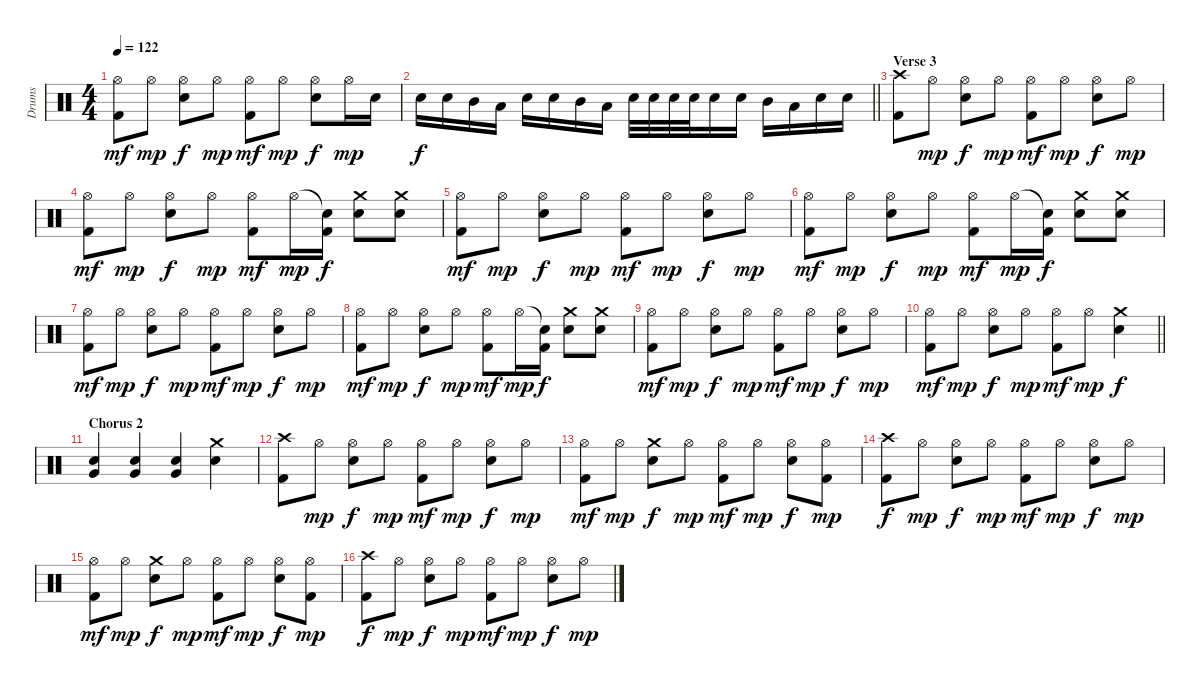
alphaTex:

\track ("Drums" "Drums") {instrument percussion}
\staff {score}
\articulation defaults
\ts (4 4)
\tempo 122
\clef neutral
\ks c
("Hi-Hat (open)" "Kick (hit) 2").8{dy mf} "Hi-Hat (open)".8{dy mp} ("Hi-Hat (open)" "Electric Snare (hit)").8{dy f} "Hi-Hat (open)".8{dy mp} ("Hi-Hat (open)" "Kick (hit) 2").8{dy mf} "Hi-Hat (open)".8{dy mp} ("Hi-Hat (open)" "Electric Snare (hit)").8{dy f} "Hi-Hat (open)".16{dy mp} "Electric Snare (hit)".16 |
\barLineRight lightlight "Electric Snare (hit)".16{dy f} "Electric Snare (hit)".16 "Mid Tom (hit)".16 "Low Tom (hit)".16 "Electric Snare (hit)".16 "Electric Snare (hit)".16 "Mid Tom (hit)".16 "Low Tom (hit)".16 "Electric Snare (hit)".32 "Electric Snare (hit)".32 "Electric Snare (hit)".32 "Electric Snare (hit)".32 "Electric Snare (hit)".16 "Electric Snare (hit)".16 "Mid Tom (hit)".16 "Low Tom (hit)".16 "Electric Snare (hit)".16 "Electric Snare (hit)".16
|
\section ("" "Verse 3")
("Crash high (hit)" "Kick (hit) 2").8 "Hi-Hat (open)".8{dy mp} ("Hi-Hat (open)" "Electric Snare (hit)").8{dy f} "Hi-Hat (open)".8{dy mp} ("Hi-Hat (open)" "Kick (hit) 2").8{dy mf} "Hi-Hat (open)".8{dy mp} ("Hi-Hat (open)" "Electric Snare (hit)").8{dy f} "Hi-Hat (open)".8{dy mp} |
("Hi-Hat (open)" "Kick (hit) 2").8{dy mf} "Hi-Hat (open)".8{dy mp} ("Hi-Hat (open)" "Electric Snare (hit)").8{dy f} "Hi-Hat (open)".8{dy mp} ("Hi-Hat (open)" "Kick (hit) 2").8{dy mf} "Hi-Hat (open)".16{dy mp} ("Snare (hit)"{t} "Kick (hit) 2").16{dy f} ("Crash medium (hit)" "Electric Snare (hit)").8 ("Crash medium (hit)" "Electric Snare (hit)").8 |
("Hi-Hat (open)" "Kick (hit) 2").8{dy mf} "Hi-Hat (open)".8{dy mp} ("Hi-Hat (open)" "Electric Snare (hit)").8{dy f} "Hi-Hat (open)".8{dy mp} ("Hi-Hat (open)" "Kick (hit) 2").8{dy mf} "Hi-Hat (open)".8{dy mp} ("Hi-Hat (open)" "Electric Snare (hit)").8{dy f} "Hi-Hat (open)".8{dy mp} |
("Hi-Hat (open)" "Kick (hit) 2").8{dy mf} "Hi-Hat (open)".8{dy mp} ("Hi-Hat (open)" "Electric Snare (hit)").8{dy f} "Hi-Hat (open)".8{dy mp} ("Hi-Hat (open)" "Kick (hit) 2").8{dy mf} "Hi-Hat (open)".16{dy mp} ("Snare (hit)"{t} "Kick (hit) 2").16{dy f} ("Crash medium (hit)" "Electric Snare (hit)").8 ("Crash medium (hit)" "Electric Snare (hit)").8 |
("Hi-Hat (open)" "Kick (hit) 2").8{dy mf} "Hi-Hat (open)".8{dy mp} ("Hi-Hat (open)" "Electric Snare (hit)").8{dy f} "Hi-Hat (open)".8{dy mp} ("Hi-Hat (open)" "Kick (hit) 2").8{dy mf} "Hi-Hat (open)".8{dy mp} ("Hi-Hat (open)" "Electric Snare (hit)").8{dy f} "Hi-Hat (open)".8{dy mp} |
("Hi-Hat (open)" "Kick (hit) 2").8{dy mf} "Hi-Hat (open)".8{dy mp} ("Hi-Hat (open)" "Electric Snare (hit)").8{dy f} "Hi-Hat (open)".8{dy mp} ("Hi-Hat (open)" "Kick (hit) 2").8{dy mf} "Hi-Hat (open)".16{dy mp} ("Snare (hit)"{t} "Kick (hit) 2").16{dy f} ("Crash medium (hit)" "Electric Snare (hit)").8 ("Crash medium (hit)" "Electric Snare (hit)").8 |
("Hi-Hat (open)" "Kick (hit) 2").8{dy mf} "Hi-Hat (open)".8{dy mp} ("Hi-Hat (open)" "Electric Snare (hit)").8{dy f} "Hi-Hat (open)".8{dy mp} ("Hi-Hat (open)" "Kick (hit) 2").8{dy mf} "Hi-Hat (open)".8{dy mp} ("Hi-Hat (open)" "Electric Snare (hit)").8{dy f} "Hi-Hat (open)".8{dy mp} |
\barLineRight lightlight
("Hi-Hat (open)" "Kick (hit) 2").8{dy mf} "Hi-Hat (open)".8{dy mp} ("Hi-Hat (open)" "Electric Snare (hit)").8{dy f} "Hi-Hat (open)".8{dy mp} ("Hi-Hat (open)" "Kick (hit) 2").8{dy mf} "Hi-Hat (open)".8{dy mp} ("Crash medium (hit)" "Electric Snare (hit)").4{dy f} |
\section ("" "Chorus 2")
("Very Low Tom (hit)" "Electric Snare (hit)").4 ("Very Low Tom (hit)" "Electric Snare (hit)").4 ("Very Low Tom (hit)" "Electric Snare (hit)").4 ("Crash medium (hit)" "Electric Snare (hit)").4 |
("Crash high (hit)" "Kick (hit) 2").8 "Hi-Hat (open)".8{dy mp} ("Hi-Hat (open)" "Electric Snare (hit)").8{dy f} "Hi-Hat (open)".8{dy mp} ("Hi-Hat (open)" "Kick (hit) 2").8{dy mf} "Hi-Hat (open)".8{dy mp} ("Hi-Hat (open)" "Electric Snare (hit)").8{dy f} "Hi-Hat (open)".8{dy mp} |
("Hi-Hat (open)" "Kick (hit) 2").8{dy mf} "Hi-Hat (open)".8{dy mp} ("Crash medium (hit)" "Electric Snare (hit)").8{dy f} "Hi-Hat (open)".8{dy mp} ("Hi-Hat (open)" "Kick (hit) 2").8{dy mf} "Hi-Hat (open)".8{dy mp} ("Hi-Hat (open)" "Electric Snare (hit)").8{dy f} ("Hi-Hat (open)" "Kick (hit) 2").8{dy mp} |
("Crash high (hit)" "Kick (hit) 2").8{dy f} "Hi-Hat (open)".8{dy mp} ("Hi-Hat (open)" "Electric Snare (hit)").8{dy f} "Hi-Hat (open)".8{dy mp} ("Hi-Hat (open)" "Kick (hit) 2").8{dy mf} "Hi-Hat (open)".8{dy mp} ("Hi-Hat (open)" "Electric Snare (hit)").8{dy f} "Hi-Hat (open)".8{dy mp} |
("Hi-Hat (open)" "Kick (hit) 2").8{dy mf} "Hi-Hat (open)".8{dy mp} ("Crash medium (hit)" "Electric Snare (hit)").8{dy f} "Hi-Hat (open)".8{dy mp} ("Hi-Hat (open)" "Kick (hit) 2").8{dy mf} "Hi-Hat (open)".8{dy mp} ("Hi-Hat (open)" "Electric Snare (hit)").8{dy f} ("Hi-Hat (open)" "Kick (hit) 2").8{dy mp} |
("Crash high (hit)" "Kick (hit) 2").8{dy f} "Hi-Hat (open)".8{dy mp} ("Hi-Hat (open)" "Electric Snare (hit)").8{dy f} "Hi-Hat (open)".8{dy mp} ("Hi-Hat (open)" "Kick (hit) 2").8{dy mf} "Hi-Hat (open)".8{dy mp} ("Hi-Hat (open)" "Electric Snare (hit)").8{dy f} "Hi-Hat (open)".8{dy mp}
